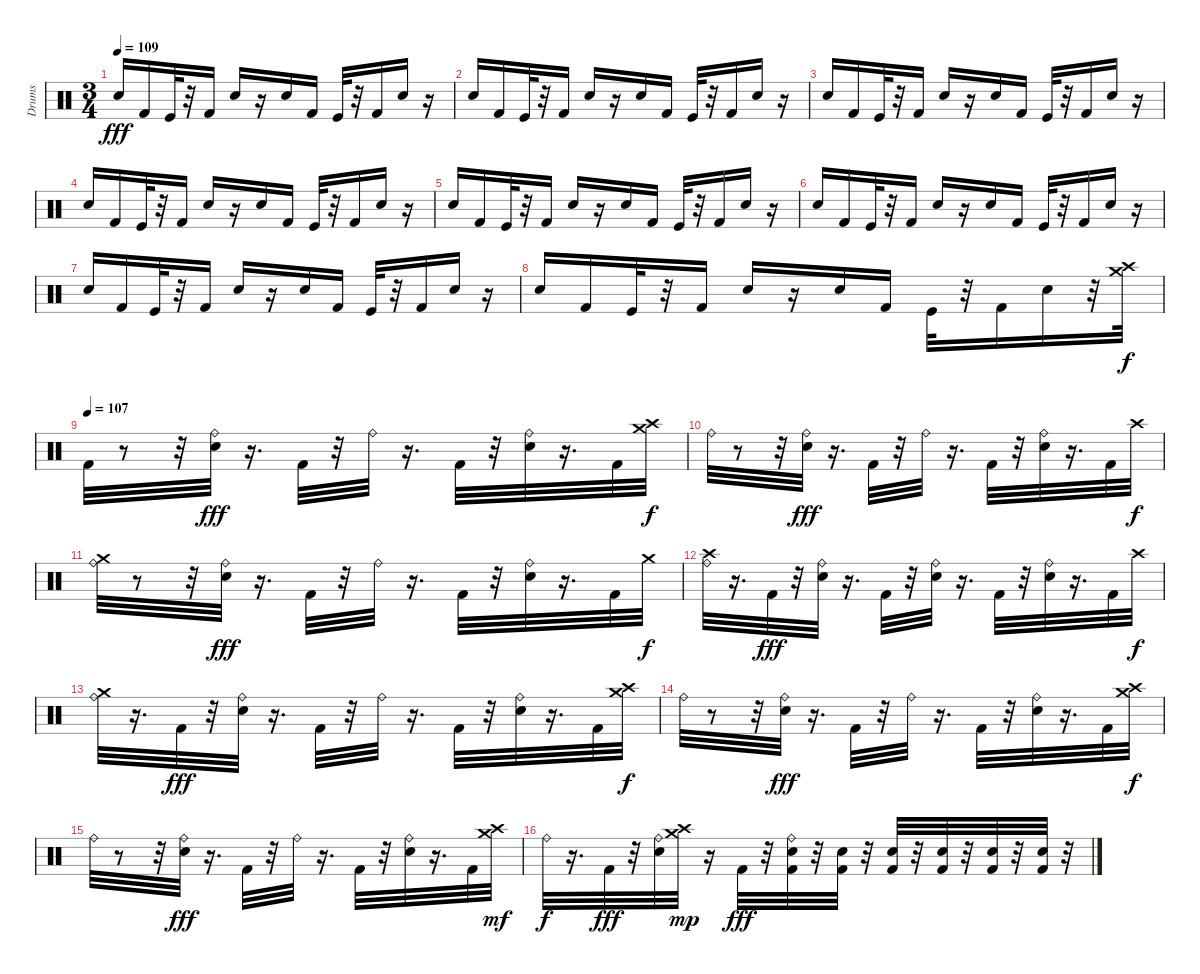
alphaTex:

\track ("Drums" "Drums") {instrument percussion}
\staff {score}
\articulation defaults
\ts (3 4)
\tempo 109
\clef neutral
\ks c "Electric Snare (hit)".16{dy fff} "Kick (hit) 2".16 "Kick (hit)".32
r.32 "Kick (hit) 2".16 "Electric Snare (hit)".16 r.16 "Electric Snare (hit)".16 "Kick (hit) 2".16 "Kick (hit)".32 r.32 "Kick (hit) 2".16 "Electric Snare (hit)".16 r.16 |
"Electric Snare (hit)".16 "Kick (hit) 2".16 "Kick (hit)".32 r.32 "Kick (hit) 2".16 "Electric Snare (hit)".16 r.16 "Electric Snare (hit)".16 "Kick (hit) 2".16 "Kick (hit)".32 r.32 "Kick (hit) 2".16 "Electric Snare (hit)".16 r.16 |
"Electric Snare (hit)".16 "Kick (hit) 2".16 "Kick (hit)".32 r.32 "Kick (hit) 2".16 "Electric Snare (hit)".16 r.16 "Electric Snare (hit)".16 "Kick (hit) 2".16 "Kick (hit)".32 r.32 "Kick (hit) 2".16 "Electric Snare (hit)".16 r.16 |
"Electric Snare (hit)".16 "Kick (hit) 2".16 "Kick (hit)".32 r.32 "Kick (hit) 2".16 "Electric Snare (hit)".16 r.16 "Electric Snare (hit)".16 "Kick (hit) 2".16 "Kick (hit)".32 r.32 "Kick (hit) 2".16 "Electric Snare (hit)".16 r.16 |
"Electric Snare (hit)".16 "Kick (hit) 2".16 "Kick (hit)".32 r.32 "Kick (hit) 2".16 "Electric Snare (hit)".16 r.16 "Electric Snare (hit)".16 "Kick (hit) 2".16 "Kick (hit)".32 r.32 "Kick (hit) 2".16 "Electric Snare (hit)".16 r.16 |
"Electric Snare (hit)".16 "Kick (hit) 2".16 "Kick (hit)".32 r.32 "Kick (hit) 2".16 "Electric Snare (hit)".16 r.16 "Electric Snare (hit)".16 "Kick (hit) 2".16 "Kick (hit)".32 r.32 "Kick (hit) 2".16 "Electric Snare (hit)".16 r.16 |
"Electric Snare (hit)".16 "Kick (hit) 2".16 "Kick (hit)".32 r.32 "Kick (hit) 2".16 "Electric Snare (hit)".16 r.16 "Electric Snare (hit)".16 "Kick (hit) 2".16 "Kick (hit)".32 r.32 "Kick (hit) 2".16 "Electric Snare (hit)".16 r.16 |
"Electric Snare (hit)".16 "Kick (hit) 2".16 "Kick (hit)".32 r.32 "Kick (hit) 2".16 "Electric Snare (hit)".16 r.16 "Electric Snare (hit)".16 "Kick (hit) 2".16 "Kick (hit)".32 r.32 "Kick (hit) 2".16 "Electric Snare (hit)".16 r.32 ("Crash high (hit)" "Crash medium (hit)").32{dy f} |
\tempo (107)
"Kick (hit) 2".32 r.8 r.32 ("Ride (bell)" "Electric Snare (hit)").32{dy fff} r.16{d} "Kick (hit) 2".32 r.32 "Ride (bell)".32 r.16{d} "Kick (hit) 2".32 r.32 ("Ride (bell)" "Electric Snare (hit)").32 r.16{d} "Kick (hit) 2".32 ("Crash medium (hit)" "Crash high (hit)").32{dy f} |
"Ride (bell)".32 r.8 r.32 ("Ride (bell)" "Electric Snare (hit)").32{dy fff} r.16{d} "Kick (hit) 2".32 r.32 "Ride (bell)".32 r.16{d} "Kick (hit) 2".32 r.32 ("Ride (bell)" "Electric Snare (hit)").32 r.16{d} "Kick (hit) 2".32 "Crash high (hit)".32{dy f} |
("Crash medium (hit)" "Ride (bell)").32 r.8 r.32 ("Ride (bell)" "Electric Snare (hit)").32{dy fff} r.16{d} "Kick (hit) 2".32 r.32 "Ride (bell)".32 r.16{d} "Kick (hit) 2".32 r.32 ("Ride (bell)" "Electric Snare (hit)").32 r.16{d} "Kick (hit) 2".32 "Crash medium (hit)".32{dy f} |
("Crash high (hit)" "Ride (bell)").32 r.16{d} "Kick (hit) 2".32{dy fff} r.32 ("Electric Snare (hit)" "Ride (bell)").32 r.16{d} "Kick (hit) 2".32 r.32 ("Electric Snare (hit)" "Ride (bell)").32 r.16{d} "Kick (hit) 2".32 r.32 ("Electric Snare (hit)" "Ride (bell)").32 r.16{d} "Kick (hit) 2".32 "Crash high (hit)".32{dy f} |
("Crash medium (hit)" "Ride (bell)").32 r.16{d} "Kick (hit) 2".32{dy fff} r.32 ("Electric Snare (hit)" "Ride (bell)").32 r.16{d} "Kick (hit) 2".32 r.32 "Ride (bell)".32 r.16{d} "Kick (hit) 2".32 r.32 ("Ride (bell)" "Electric Snare (hit)").32 r.16{d} "Kick (hit) 2".32 ("Crash medium (hit)" "Crash high (hit)").32{dy f} |
"Ride (bell)".32 r.8 r.32 ("Ride (bell)" "Electric Snare (hit)").32{dy fff} r.16{d} "Kick (hit) 2".32 r.32 "Ride (bell)".32 r.16{d} "Kick (hit) 2".32 r.32 ("Ride (bell)" "Electric Snare (hit)").32 r.16{d} "Kick (hit) 2".32 ("Crash high (hit)" "Crash medium (hit)").32{dy f} |
"Ride (bell)".32 r.8 r.32 ("Ride (bell)" "Electric Snare (hit)").32{dy fff} r.16{d} "Kick (hit) 2".32 r.32 "Ride (bell)".32 r.16{d} "Kick (hit) 2".32 r.32 ("Ride (bell)" "Electric Snare (hit)").32 r.16{d} "Kick (hit) 2".32 ("Crash medium (hit)" "Crash high (hit)").32{dy mf} |
"Ride (bell)".32{dy f} r.16{d} "Kick (hit) 2".32{dy fff} r.32 ("Electric Snare (hit)" "Ride (bell)").32 ("Crash high (hit)" "Crash medium (hit)").32{dy mp} r.16 "Kick (hit) 2".32{dy fff} r.32 ("Kick (hit) 2" "Electric Snare (hit)" "Ride (bell)").32 r.32 ("Kick (hit) 2" "Electric Snare (hit)").32 r.32 ("Kick (hit) 2" "Electric Snare (hit)").32 r.32 ("Kick (hit) 2" "Electric Snare (hit)").32 r.32 ("Kick (hit) 2" "Electric Snare (hit)").32 r.32 ("Kick (hit) 2" "Electric Snare (hit)").32 r.32
